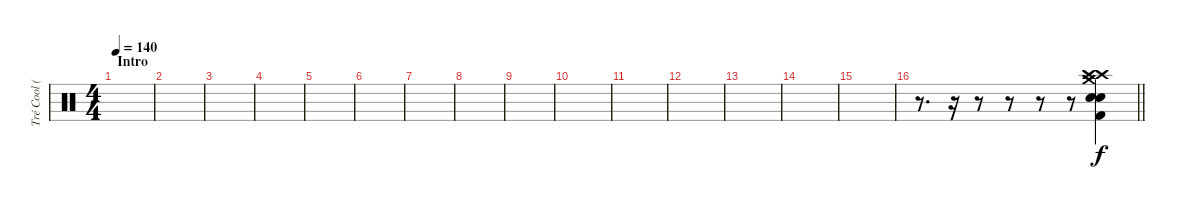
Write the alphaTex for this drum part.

\track ("Tré Cool (Drums)" "Tré Cool (") {instrument percussion}
\staff {score}
\articulation defaults
\ts (4 4)
\section ("" "Intro")
\tempo 140
\tempo 105
\tempo 140
\clef neutral
\ks c
|
|
|
|
|
|
|
|
|
|
|
|
|
|
|
\barLineRight lightlight
r.8{d} r.16 r.8 r.8 r.8 r.8 ("Kick (hit) 2" "Electric Snare (hit)" "Crash high (hit)" "Crash high (hit)" "Crash medium (hit)" "Electric Snare (hit)").4
